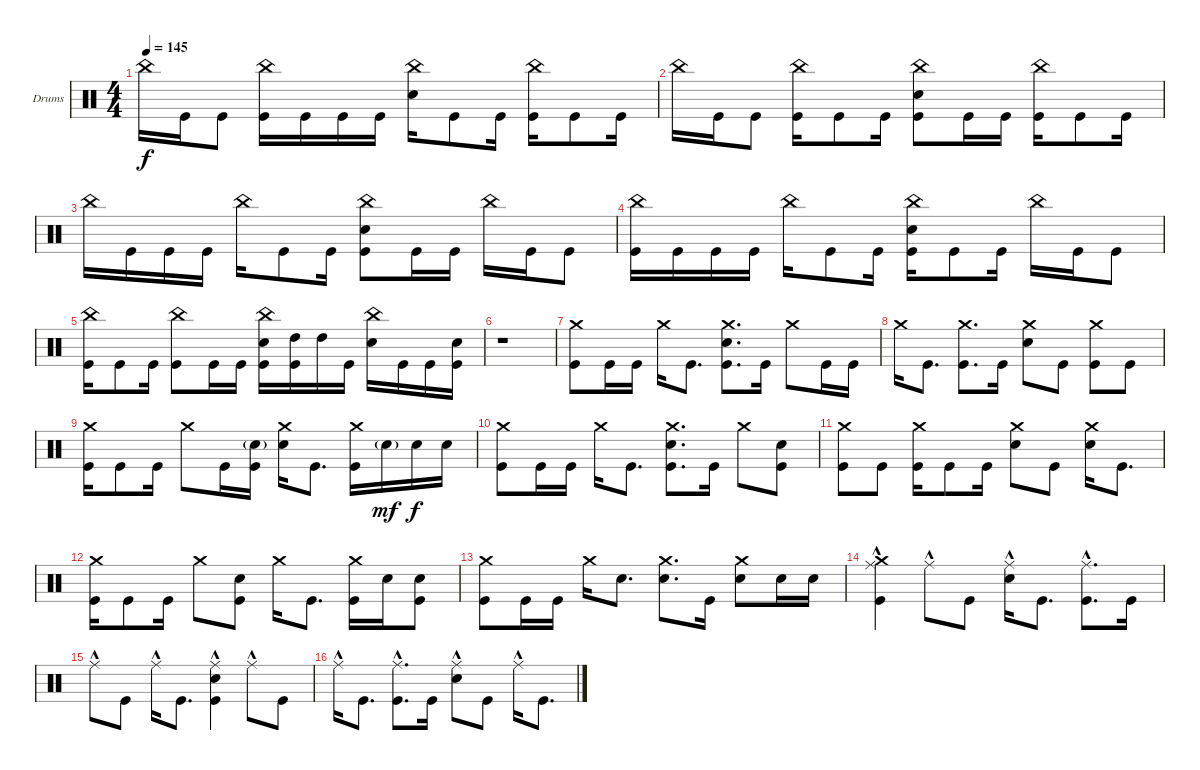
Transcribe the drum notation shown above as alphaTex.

\bracketExtendMode groupsimilarinstruments
\firstSystemTrackNameOrientation horizontal
\otherSystemsTrackNameOrientation horizontal
\track ("Drumkit" "Drums") {instrument percussion}
\staff {score}
\articulation defaults
\ts (4 4)
\tempo 145
\clef neutral
\ks c "China (hit)".16{dy f} "Kick (hit)".16 "Kick (hit)".8
("China (hit)" "Kick (hit)").16 "Kick (hit)".16 "Kick (hit)".16 "Kick (hit)".16 ("China (hit)" "Snare (hit) 2").16 "Kick (hit)".8 "Kick (hit)".16 ("China (hit)" "Kick (hit)").16 "Kick (hit)".8 "Kick (hit)".16 |
"China (hit)".16 "Kick (hit)".16 "Kick (hit)".8 ("China (hit)" "Kick (hit)").16 "Kick (hit)".8 "Kick (hit)".16 ("China (hit)" "Snare (hit) 2" "Kick (hit)").8 "Kick (hit)".16 "Kick (hit)".16 ("China (hit)" "Kick (hit)").16 "Kick (hit)".8 "Kick (hit)".16 |
"China (hit)".16 "Kick (hit)".16 "Kick (hit)".16 "Kick (hit)".16 "China (hit)".16 "Kick (hit)".8 "Kick (hit)".16 ("China (hit)" "Snare (hit) 2" "Kick (hit)").8 "Kick (hit)".16 "Kick (hit)".16 "China (hit)".16 "Kick (hit)".16 "Kick (hit)".8 |
("China (hit)" "Kick (hit)").16 "Kick (hit)".16 "Kick (hit)".16 "Kick (hit)".16 "China (hit)".16 "Kick (hit)".8 "Kick (hit)".16 ("China (hit)" "Snare (hit) 2" "Kick (hit)").16 "Kick (hit)".8 "Kick (hit)".16 "China (hit)".16 "Kick (hit)".16 "Kick (hit)".8 |
("China (hit)" "Kick (hit)").16 "Kick (hit)".8 "Kick (hit)".16 ("China (hit)" "Kick (hit)").8 "Kick (hit)".16 "Kick (hit)".16 ("China (hit)" "Snare (hit) 2" "Kick (hit)").16 ("High Tom (hit)" "Kick (hit)").16 "High Tom (hit)".16 "Kick (hit)".16 ("China (hit)" "Snare (hit) 2").16 "Kick (hit)".16 "Kick (hit)".16 ("Snare (hit) 2" "Kick (hit)").16 |
r.1 |
("Crash medium (hit)" "Kick (hit)").8 "Kick (hit)".16 "Kick (hit)".16 "Crash medium (hit)".16 "Kick (hit)".8{d} ("Crash medium (hit)" "Snare (hit) 2" "Kick (hit)").8{d} "Kick (hit)".16 "Crash medium (hit)".8 "Kick (hit)".16 "Kick (hit)".16 |
"Crash medium (hit)".16 "Kick (hit)".8{d} ("Crash medium (hit)" "Kick (hit)").8{d} "Kick (hit)".16 ("Crash medium (hit)" "Snare (hit) 2").8 "Kick (hit)".8 ("Crash medium (hit)" "Kick (hit)").8 "Kick (hit)".8 |
("Crash medium (hit)" "Kick (hit)").16 "Kick (hit)".8 "Kick (hit)".16 "Crash medium (hit)".8 "Kick (hit)".16 ("Snare (hit) 2"{g} "Kick (hit)").16 ("Crash medium (hit)" "Snare (hit) 2").16 "Kick (hit)".8{d} ("Crash medium (hit)" "Kick (hit)").16 "Snare (hit) 2"{g}.16{dy mf} "Snare (hit) 2".16{dy f} "Snare (hit) 2".16 |
("Crash medium (hit)" "Kick (hit)").8 "Kick (hit)".16 "Kick (hit)".16 "Crash medium (hit)".16 "Kick (hit)".8{d} ("Crash medium (hit)" "Snare (hit) 2" "Kick (hit)").8{d} "Kick (hit)".16 "Crash medium (hit)".8 ("Snare (hit) 2" "Kick (hit)").8 |
("Crash medium (hit)" "Kick (hit)").8 "Kick (hit)".8 ("Crash medium (hit)" "Kick (hit)").16 "Kick (hit)".8 "Kick (hit)".16 ("Crash medium (hit)" "Snare (hit) 2").8 "Kick (hit)".8 ("Crash medium (hit)" "Snare (hit) 2").16 "Kick (hit)".8{d} |
("Crash medium (hit)" "Kick (hit)").16 "Kick (hit)".8 "Kick (hit)".16 "Crash medium (hit)".8 ("Snare (hit) 2" "Kick (hit)").8 "Crash medium (hit)".16 "Kick (hit)".8{d} ("Crash medium (hit)" "Kick (hit)").16 "Snare (hit) 2".16 ("Snare (hit) 2" "Kick (hit)").8 |
("Crash medium (hit)" "Kick (hit)").8 "Kick (hit)".16 "Kick (hit)".16 "Crash medium (hit)".16 "Snare (hit) 2".8{d} ("Crash medium (hit)" "Snare (hit) 2").8{d} "Kick (hit)".16 ("Crash medium (hit)" "Snare (hit) 2").8 "Snare (hit) 2".16 "Snare (hit) 2".16 |
("Ride (middle)"{hac} "Crash medium (hit)" "Kick (hit)").4 "Ride (middle)"{hac}.8 "Kick (hit)".8 ("Ride (middle)"{hac} "Snare (hit) 2").16 "Kick (hit)".8{d} ("Ride (middle)"{hac} "Kick (hit)").8{d} "Kick (hit)".16 |
"Ride (middle)"{hac}.8 "Kick (hit)".8 "Ride (middle)"{hac}.16 "Kick (hit)".8{d} ("Ride (middle)"{hac} "Snare (hit) 2" "Kick (hit)").4 "Ride (middle)"{hac}.8 "Kick (hit)".8 |
"Ride (middle)"{hac}.16 "Kick (hit)".8{d} ("Ride (middle)"{hac} "Kick (hit)").8{d} "Kick (hit)".16 ("Ride (middle)"{hac} "Snare (hit) 2").8 "Kick (hit)".8 "Ride (middle)"{hac}.16 "Kick (hit)".8{d}
